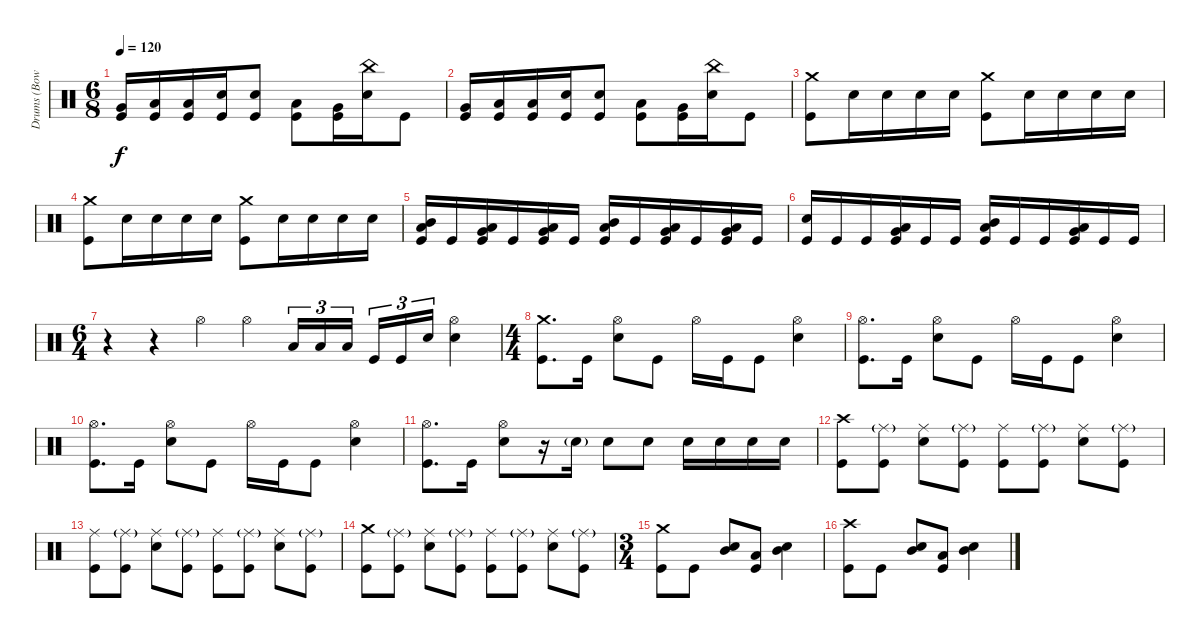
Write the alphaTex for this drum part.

\track ("Drums (Bowders)" "Drums (Bow") {instrument percussion}
\staff {score}
\articulation defaults
\ts (6 8)
\tempo 120
\clef neutral
\ks c
("Kick (hit)" "Very Low Tom (hit)").16{dy f} ("Low Floor Tom (hit)" "Kick (hit)").16 ("Kick (hit)" "Low Tom (hit)").16 ("Snare (hit) 2" "Kick (hit)").16 ("Kick (hit)" "Snare (hit) 2").8 ("Kick (hit)" "Low Tom (hit)").8 ("Kick (hit)" "Very Low Tom (hit)").16 ("Snare (hit) 2" "China (hit)").16 "Kick (hit)".8 |
("Kick (hit)" "Very Low Tom (hit)").16 ("Low Floor Tom (hit)" "Kick (hit)").16 ("Kick (hit)" "Low Tom (hit)").16 ("Snare (hit) 2" "Kick (hit)").16 ("Kick (hit)" "Snare (hit) 2").8 ("Kick (hit)" "Low Tom (hit)").8 ("Kick (hit)" "Very Low Tom (hit)").16 ("Snare (hit) 2" "China (hit)").16 "Kick (hit)".8 |
("Kick (hit)" "Crash medium (hit)").8 "Snare (hit) 2".16 "Snare (hit) 2".16 "Snare (hit) 2".16 "Snare (hit) 2".16 ("Kick (hit)" "Crash medium (hit)").8 "Snare (hit) 2".16 "Snare (hit) 2".16 "Snare (hit) 2".16 "Snare (hit) 2".16 |
("Kick (hit)" "Crash medium (hit)").8 "Snare (hit) 2".16 "Snare (hit) 2".16 "Snare (hit) 2".16 "Snare (hit) 2".16 ("Kick (hit)" "Crash medium (hit)").8 "Snare (hit) 2".16 "Snare (hit) 2".16 "Snare (hit) 2".16 "Snare (hit) 2".16 |
("Kick (hit)" "Mid Tom (hit)" "Low Tom (hit)").16 "Kick (hit)".16 ("Kick (hit)" "Low Tom (hit)" "Very Low Tom (hit)").16 "Kick (hit)".16 ("Kick (hit)" "Very Low Tom (hit)" "Low Floor Tom (hit)").16 "Kick (hit)".16 ("Kick (hit)" "Mid Tom (hit)" "Low Tom (hit)").16 "Kick (hit)".16 ("Kick (hit)" "Low Tom (hit)" "Very Low Tom (hit)").16 "Kick (hit)".16 ("Kick (hit)" "Low Floor Tom (hit)" "Very Low Tom (hit)").16 "Kick (hit)".16 |
("Kick (hit)" "Snare (hit) 2").16 "Kick (hit)".16 "Kick (hit)".16 ("Kick (hit)" "Low Tom (hit)" "Very Low Tom (hit)").16 "Kick (hit)".16 "Kick (hit)".16 ("Kick (hit)" "Mid Tom (hit)" "Low Tom (hit)").16 "Kick (hit)".16 "Kick (hit)".16 ("Kick (hit)" "Low Tom (hit)" "Very Low Tom (hit)").16 "Kick (hit)".16 "Kick (hit)".16 |
\ts (6 4)
r.4 r.4 "Hi-Hat (open)".4 "Hi-Hat (open)".4 "Low Floor Tom (hit)".16{tu (3 2)} "Low Floor Tom (hit)".16{tu (3 2)} "Low Floor Tom (hit)".16{tu (3 2)} "Kick (hit)".16{tu (3 2)} "Kick (hit)".16{tu (3 2)} "Snare (hit) 2".16{tu (3 2)} ("Snare (hit) 2" "Hi-Hat (open)").4 |
\ts (4 4)
("Kick (hit)" "Crash medium (hit)").8{d} "Kick (hit)".16 ("Snare (hit) 2" "Hi-Hat (open)").8 "Kick (hit)".8 "Hi-Hat (open)".16 "Kick (hit)".16 "Kick (hit)".8 ("Snare (hit) 2" "Hi-Hat (open)").4 |
("Kick (hit)" "Hi-Hat (open)").8{d} "Kick (hit)".16 ("Snare (hit) 2" "Hi-Hat (open)").8 "Kick (hit)".8 "Hi-Hat (open)".16 "Kick (hit)".16 "Kick (hit)".8 ("Snare (hit) 2" "Hi-Hat (open)").4 |
("Kick (hit)" "Hi-Hat (open)").8{d} "Kick (hit)".16 ("Snare (hit) 2" "Hi-Hat (open)").8 "Kick (hit)".8 "Hi-Hat (open)".16 "Kick (hit)".16 "Kick (hit)".8 ("Snare (hit) 2" "Hi-Hat (open)").4 |
("Kick (hit)" "Hi-Hat (open)").8{d} "Kick (hit)".16 ("Snare (hit) 2" "Hi-Hat (open)").8 r.16 "Snare (hit) 2"{g}.16 "Snare (hit) 2".8 "Snare (hit) 2".8 "Snare (hit) 2".16 "Snare (hit) 2".16 "Snare (hit) 2".16 "Snare (hit) 2".16 |
("Kick (hit)" "Crash high (hit)").8 ("Kick (hit)" "Ride (middle)"{g}).8 ("Snare (hit) 2" "Ride (middle)").8 ("Kick (hit)" "Ride (middle)"{g}).8 ("Kick (hit)" "Ride (middle)").8 ("Kick (hit)" "Ride (middle)"{g}).8 ("Snare (hit) 2" "Ride (middle)").8 ("Kick (hit)" "Ride (middle)"{g}).8 |
("Kick (hit)" "Ride (middle)").8 ("Kick (hit)" "Ride (middle)"{g}).8 ("Snare (hit) 2" "Ride (middle)").8 ("Kick (hit)" "Ride (middle)"{g}).8 ("Kick (hit)" "Ride (middle)").8 ("Kick (hit)" "Ride (middle)"{g}).8 ("Snare (hit) 2" "Ride (middle)").8 ("Kick (hit)" "Ride (middle)"{g}).8 |
("Kick (hit)" "Crash medium (hit)").8 ("Kick (hit)" "Ride (middle)"{g}).8 ("Snare (hit) 2" "Ride (middle)").8 ("Kick (hit)" "Ride (middle)"{g}).8 ("Kick (hit)" "Ride (middle)").8 ("Kick (hit)" "Ride (middle)"{g}).8 ("Snare (hit) 2" "Ride (middle)").8 ("Kick (hit)" "Ride (middle)"{g}).8 |
\ts (3 4)
("Kick (hit)" "Crash medium (hit)").8 "Kick (hit)".8 ("Snare (hit) 2" "Mid Tom (hit)").8 ("Low Floor Tom (hit)" "Kick (hit)").8 ("Snare (hit) 2" "Mid Tom (hit)").4 |
("Kick (hit)" "Crash high (hit)").8 "Kick (hit)".8 ("Snare (hit) 2" "Mid Tom (hit)").8 ("Low Floor Tom (hit)" "Kick (hit)").8 ("Snare (hit) 2" "Mid Tom (hit)").4
